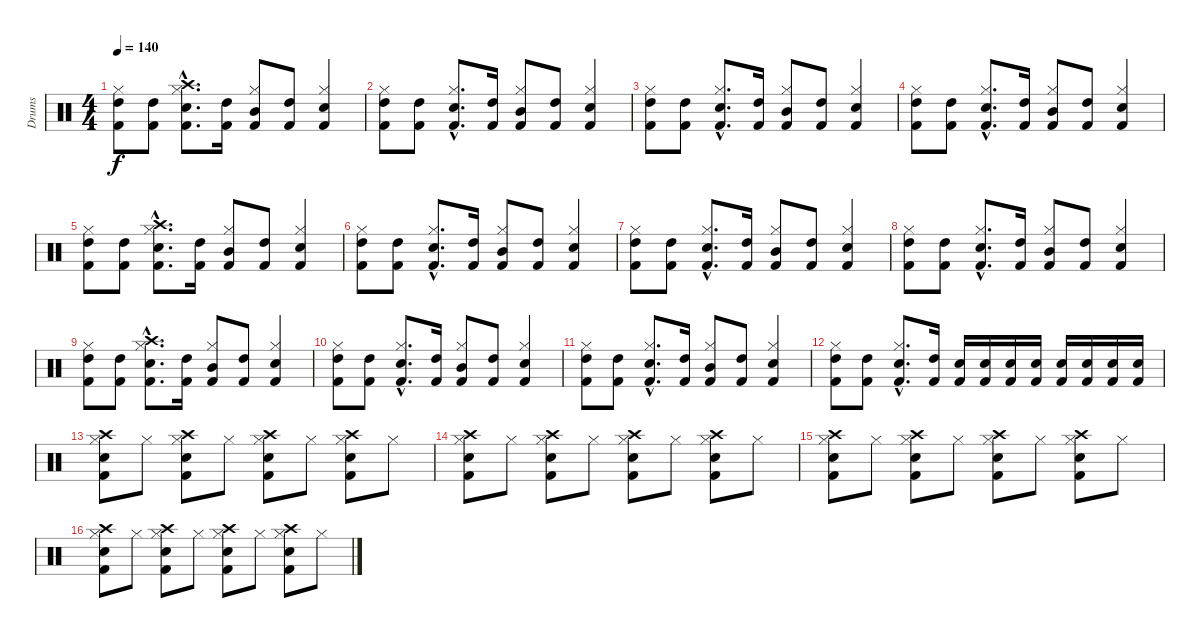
\track ("Drums" "Drums") {instrument percussion}
\staff {score}
\articulation defaults
\ts (4 4)
\tempo 140
\clef neutral
\ks c
("Kick (hit) 2" "High Tom (hit)" "Hi-Hat (closed)").8{dy f} ("Kick (hit) 2" "High Tom (hit)").8 ("Kick (hit) 2"{hac} "Electric Snare (hit)"{hac} "Crash high (hit)"{hac} "Hi-Hat (closed)"{hac}).8{d} ("Kick (hit) 2" "High Tom (hit)").16 ("Kick (hit) 2" "Mid Tom (hit)" "Hi-Hat (closed)").8 ("Kick (hit) 2" "High Tom (hit)").8 ("Kick (hit) 2" "Electric Snare (hit)" "Hi-Hat (closed)").4 |
("Kick (hit) 2" "High Tom (hit)" "Hi-Hat (closed)").8 ("Kick (hit) 2" "High Tom (hit)").8 ("Kick (hit) 2"{hac} "Electric Snare (hit)"{hac} "Hi-Hat (closed)"{hac}).8{d} ("Kick (hit) 2" "High Tom (hit)").16 ("Kick (hit) 2" "Mid Tom (hit)" "Hi-Hat (closed)").8 ("Kick (hit) 2" "High Tom (hit)").8 ("Kick (hit) 2" "Electric Snare (hit)" "Hi-Hat (closed)").4 |
("Kick (hit) 2" "High Tom (hit)" "Hi-Hat (closed)").8 ("Kick (hit) 2" "High Tom (hit)").8 ("Kick (hit) 2"{hac} "Electric Snare (hit)"{hac} "Hi-Hat (closed)"{hac}).8{d} ("Kick (hit) 2" "High Tom (hit)").16 ("Kick (hit) 2" "Mid Tom (hit)" "Hi-Hat (closed)").8 ("Kick (hit) 2" "High Tom (hit)").8 ("Kick (hit) 2" "Electric Snare (hit)" "Hi-Hat (closed)").4 |
("Kick (hit) 2" "High Tom (hit)" "Hi-Hat (closed)").8 ("Kick (hit) 2" "High Tom (hit)").8 ("Kick (hit) 2"{hac} "Electric Snare (hit)"{hac} "Hi-Hat (closed)"{hac}).8{d} ("Kick (hit) 2" "High Tom (hit)").16 ("Kick (hit) 2" "Mid Tom (hit)" "Hi-Hat (closed)").8 ("Kick (hit) 2" "High Tom (hit)").8 ("Kick (hit) 2" "Electric Snare (hit)" "Hi-Hat (closed)").4 |
("Kick (hit) 2" "High Tom (hit)" "Hi-Hat (closed)").8 ("Kick (hit) 2" "High Tom (hit)").8 ("Kick (hit) 2"{hac} "Electric Snare (hit)"{hac} "Crash high (hit)"{hac} "Hi-Hat (closed)"{hac}).8{d} ("Kick (hit) 2" "High Tom (hit)").16 ("Kick (hit) 2" "Mid Tom (hit)" "Hi-Hat (closed)").8 ("Kick (hit) 2" "High Tom (hit)").8 ("Kick (hit) 2" "Electric Snare (hit)" "Hi-Hat (closed)").4 |
("Kick (hit) 2" "High Tom (hit)" "Hi-Hat (closed)").8 ("Kick (hit) 2" "High Tom (hit)").8 ("Kick (hit) 2"{hac} "Electric Snare (hit)"{hac} "Hi-Hat (closed)"{hac}).8{d} ("Kick (hit) 2" "High Tom (hit)").16 ("Kick (hit) 2" "Mid Tom (hit)" "Hi-Hat (closed)").8 ("Kick (hit) 2" "High Tom (hit)").8 ("Kick (hit) 2" "Electric Snare (hit)" "Hi-Hat (closed)").4 |
("Kick (hit) 2" "High Tom (hit)" "Hi-Hat (closed)").8 ("Kick (hit) 2" "High Tom (hit)").8 ("Kick (hit) 2"{hac} "Electric Snare (hit)"{hac} "Hi-Hat (closed)"{hac}).8{d} ("Kick (hit) 2" "High Tom (hit)").16 ("Kick (hit) 2" "Mid Tom (hit)" "Hi-Hat (closed)").8 ("Kick (hit) 2" "High Tom (hit)").8 ("Kick (hit) 2" "Electric Snare (hit)" "Hi-Hat (closed)").4 |
("Kick (hit) 2" "High Tom (hit)" "Hi-Hat (closed)").8 ("Kick (hit) 2" "High Tom (hit)").8 ("Kick (hit) 2"{hac} "Electric Snare (hit)"{hac} "Hi-Hat (closed)"{hac}).8{d} ("Kick (hit) 2" "High Tom (hit)").16 ("Kick (hit) 2" "Mid Tom (hit)" "Hi-Hat (closed)").8 ("Kick (hit) 2" "High Tom (hit)").8 ("Kick (hit) 2" "Electric Snare (hit)" "Hi-Hat (closed)").4 |
("Kick (hit) 2" "High Tom (hit)" "Hi-Hat (closed)").8 ("Kick (hit) 2" "High Tom (hit)").8 ("Kick (hit) 2"{hac} "Electric Snare (hit)"{hac} "Crash high (hit)"{hac} "Hi-Hat (closed)"{hac}).8{d} ("Kick (hit) 2" "High Tom (hit)").16 ("Kick (hit) 2" "Mid Tom (hit)" "Hi-Hat (closed)").8 ("Kick (hit) 2" "High Tom (hit)").8 ("Kick (hit) 2" "Electric Snare (hit)" "Hi-Hat (closed)").4 |
("Kick (hit) 2" "High Tom (hit)" "Hi-Hat (closed)").8 ("Kick (hit) 2" "High Tom (hit)").8 ("Kick (hit) 2"{hac} "Electric Snare (hit)"{hac} "Hi-Hat (closed)"{hac}).8{d} ("Kick (hit) 2" "High Tom (hit)").16 ("Kick (hit) 2" "Mid Tom (hit)" "Hi-Hat (closed)").8 ("Kick (hit) 2" "High Tom (hit)").8 ("Kick (hit) 2" "Electric Snare (hit)" "Hi-Hat (closed)").4 |
("Kick (hit) 2" "High Tom (hit)" "Hi-Hat (closed)").8 ("Kick (hit) 2" "High Tom (hit)").8 ("Kick (hit) 2"{hac} "Electric Snare (hit)"{hac} "Hi-Hat (closed)"{hac}).8{d} ("Kick (hit) 2" "High Tom (hit)").16 ("Kick (hit) 2" "Mid Tom (hit)" "Hi-Hat (closed)").8 ("Kick (hit) 2" "High Tom (hit)").8 ("Kick (hit) 2" "Electric Snare (hit)" "Hi-Hat (closed)").4 |
("Kick (hit) 2" "High Tom (hit)" "Hi-Hat (closed)").8 ("Kick (hit) 2" "High Tom (hit)").8 ("Kick (hit) 2"{hac} "Electric Snare (hit)"{hac} "Hi-Hat (closed)"{hac}).8{d} ("Kick (hit) 2" "High Tom (hit)").16 ("Kick (hit) 2" "Electric Snare (hit)").16 ("Kick (hit) 2" "Electric Snare (hit)").16 ("Kick (hit) 2" "Electric Snare (hit)").16 ("Kick (hit) 2" "Electric Snare (hit)").16 ("Kick (hit) 2" "Electric Snare (hit)").16 ("Kick (hit) 2" "Electric Snare (hit)").16 ("Kick (hit) 2" "Electric Snare (hit)").16 ("Kick (hit) 2" "Electric Snare (hit)").16 |
("Hi-Hat (closed)" "Electric Snare (hit)" "Kick (hit) 2" "Crash high (hit)").8 "Hi-Hat (closed)".8 ("Hi-Hat (closed)" "Electric Snare (hit)" "Kick (hit) 2" "Crash high (hit)").8 "Hi-Hat (closed)".8 ("Hi-Hat (closed)" "Electric Snare (hit)" "Kick (hit) 2" "Crash high (hit)").8 "Hi-Hat (closed)".8 ("Hi-Hat (closed)" "Electric Snare (hit)" "Kick (hit) 2" "Crash high (hit)").8 "Hi-Hat (closed)".8 |
("Hi-Hat (closed)" "Electric Snare (hit)" "Kick (hit) 2" "Crash high (hit)").8 "Hi-Hat (closed)".8 ("Hi-Hat (closed)" "Electric Snare (hit)" "Kick (hit) 2" "Crash high (hit)").8 "Hi-Hat (closed)".8 ("Hi-Hat (closed)" "Electric Snare (hit)" "Kick (hit) 2" "Crash high (hit)").8 "Hi-Hat (closed)".8 ("Hi-Hat (closed)" "Electric Snare (hit)" "Kick (hit) 2" "Crash high (hit)").8 "Hi-Hat (closed)".8 |
("Hi-Hat (closed)" "Electric Snare (hit)" "Kick (hit) 2" "Crash high (hit)").8 "Hi-Hat (closed)".8 ("Hi-Hat (closed)" "Electric Snare (hit)" "Kick (hit) 2" "Crash high (hit)").8 "Hi-Hat (closed)".8 ("Hi-Hat (closed)" "Electric Snare (hit)" "Kick (hit) 2" "Crash high (hit)").8 "Hi-Hat (closed)".8 ("Hi-Hat (closed)" "Electric Snare (hit)" "Kick (hit) 2" "Crash high (hit)").8 "Hi-Hat (closed)".8 |
("Hi-Hat (closed)" "Electric Snare (hit)" "Kick (hit) 2" "Crash high (hit)").8 "Hi-Hat (closed)".8 ("Hi-Hat (closed)" "Electric Snare (hit)" "Kick (hit) 2" "Crash high (hit)").8 "Hi-Hat (closed)".8 ("Hi-Hat (closed)" "Electric Snare (hit)" "Kick (hit) 2" "Crash high (hit)").8 "Hi-Hat (closed)".8 ("Hi-Hat (closed)" "Electric Snare (hit)" "Kick (hit) 2" "Crash high (hit)").8 "Hi-Hat (closed)".8
